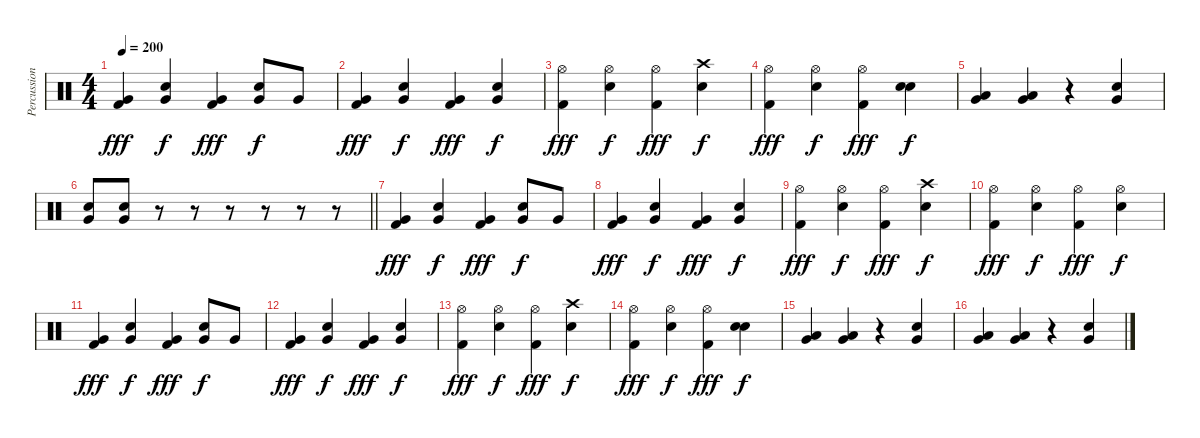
\track ("Percussion" "Percussion") {instrument percussion}
\staff {score}
\articulation defaults
\ts (4 4)
\tempo 200
\clef neutral
\ks c
("Very Low Tom (hit)" "Kick (hit) 2").4{dy fff} ("Very Low Tom (hit)" "Electric Snare (hit)").4{dy f} ("Very Low Tom (hit)" "Kick (hit) 2").4{dy fff} ("Very Low Tom (hit)" "Electric Snare (hit)").8{dy f} "Very Low Tom (hit)".8 |
("Very Low Tom (hit)" "Kick (hit) 2").4{dy fff} ("Very Low Tom (hit)" "Electric Snare (hit)").4{dy f} ("Very Low Tom (hit)" "Kick (hit) 2").4{dy fff} ("Very Low Tom (hit)" "Electric Snare (hit)").4{dy f} |
("Hi-Hat (open)" "Kick (hit) 2").4{dy fff} ("Hi-Hat (open)" "Electric Snare (hit)").4{dy f} ("Hi-Hat (open)" "Kick (hit) 2").4{dy fff} ("Crash high (hit)" "Electric Snare (hit)").4{dy f} |
("Hi-Hat (open)" "Kick (hit) 2").4{dy fff} ("Hi-Hat (open)" "Electric Snare (hit)").4{dy f} ("Hi-Hat (open)" "Kick (hit) 2").4{dy fff} ("Electric Snare (hit)" "Electric Snare (hit)").4{bd 120 dy f} |
("Very Low Tom (hit)" "Low Tom (hit)").4 ("Very Low Tom (hit)" "Low Tom (hit)").4 r.4 ("Very Low Tom (hit)" "Electric Snare (hit)").4 |
\barLineRight lightlight
("Very Low Tom (hit)" "Electric Snare (hit)").8 ("Very Low Tom (hit)" "Electric Snare (hit)").8 r.8 r.8 r.8 r.8 r.8 r.8 |
("Very Low Tom (hit)" "Kick (hit) 2").4{dy fff} ("Very Low Tom (hit)" "Electric Snare (hit)").4{dy f} ("Very Low Tom (hit)" "Kick (hit) 2").4{dy fff} ("Very Low Tom (hit)" "Electric Snare (hit)").8{dy f} "Very Low Tom (hit)".8 |
("Very Low Tom (hit)" "Kick (hit) 2").4{dy fff} ("Very Low Tom (hit)" "Electric Snare (hit)").4{dy f} ("Very Low Tom (hit)" "Kick (hit) 2").4{dy fff} ("Very Low Tom (hit)" "Electric Snare (hit)").4{dy f} |
("Hi-Hat (open)" "Kick (hit) 2").4{dy fff} ("Hi-Hat (open)" "Electric Snare (hit)").4{dy f} ("Hi-Hat (open)" "Kick (hit) 2").4{dy fff} ("Crash high (hit)" "Electric Snare (hit)").4{dy f} |
("Hi-Hat (open)" "Kick (hit) 2").4{dy fff} ("Hi-Hat (open)" "Electric Snare (hit)").4{dy f} ("Hi-Hat (open)" "Kick (hit) 2").4{dy fff} ("Hi-Hat (open)" "Electric Snare (hit)").4{dy f} |
("Very Low Tom (hit)" "Kick (hit) 2").4{dy fff} ("Very Low Tom (hit)" "Electric Snare (hit)").4{dy f} ("Very Low Tom (hit)" "Kick (hit) 2").4{dy fff} ("Very Low Tom (hit)" "Electric Snare (hit)").8{dy f} "Very Low Tom (hit)".8 |
("Very Low Tom (hit)" "Kick (hit) 2").4{dy fff} ("Very Low Tom (hit)" "Electric Snare (hit)").4{dy f} ("Very Low Tom (hit)" "Kick (hit) 2").4{dy fff} ("Very Low Tom (hit)" "Electric Snare (hit)").4{dy f} |
("Hi-Hat (open)" "Kick (hit) 2").4{dy fff} ("Hi-Hat (open)" "Electric Snare (hit)").4{dy f} ("Hi-Hat (open)" "Kick (hit) 2").4{dy fff} ("Crash high (hit)" "Electric Snare (hit)").4{dy f} |
("Hi-Hat (open)" "Kick (hit) 2").4{dy fff} ("Hi-Hat (open)" "Electric Snare (hit)").4{dy f} ("Hi-Hat (open)" "Kick (hit) 2").4{dy fff} ("Electric Snare (hit)" "Electric Snare (hit)").4{bd 120 dy f} |
("Very Low Tom (hit)" "Low Tom (hit)").4 ("Very Low Tom (hit)" "Low Tom (hit)").4 r.4 ("Very Low Tom (hit)" "Electric Snare (hit)").4 |
("Very Low Tom (hit)" "Low Tom (hit)").4 ("Very Low Tom (hit)" "Low Tom (hit)").4 r.4 ("Very Low Tom (hit)" "Electric Snare (hit)").4
